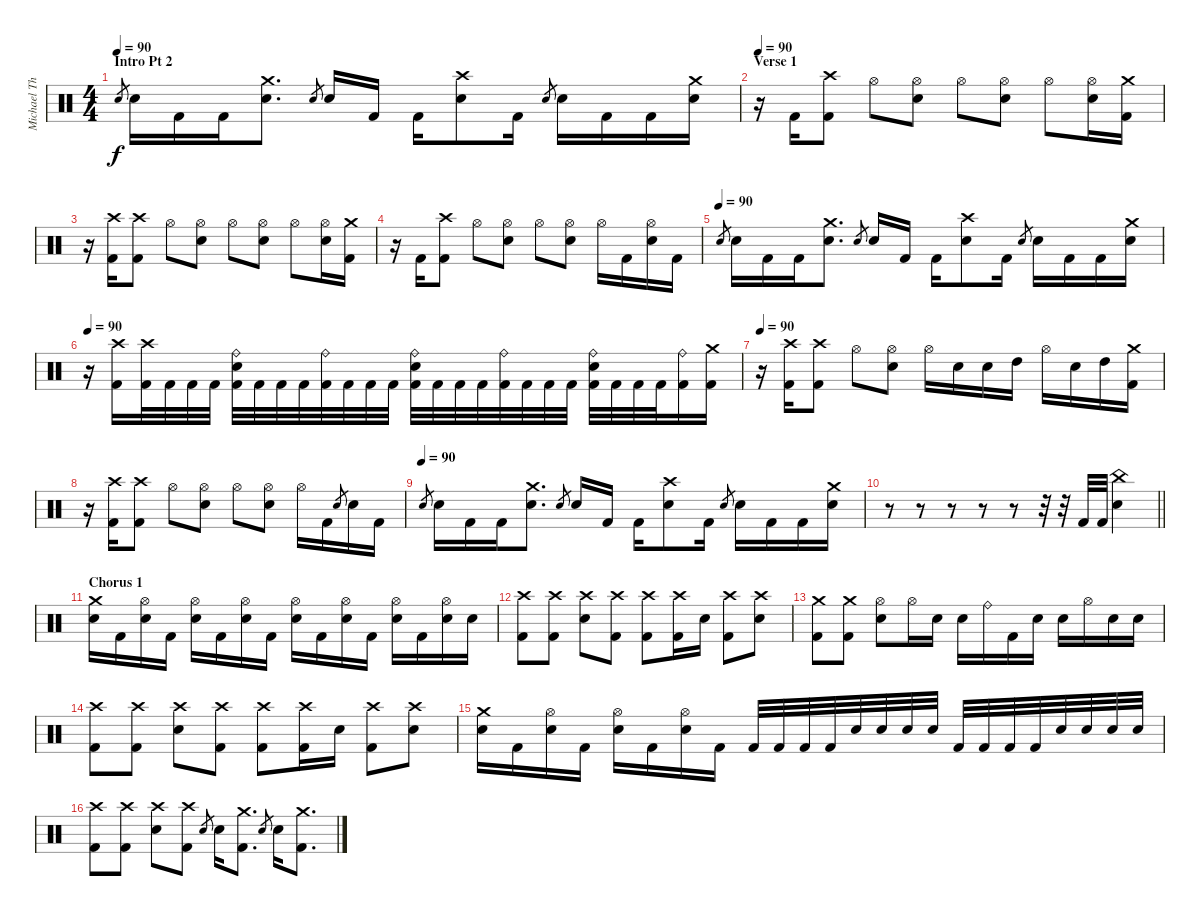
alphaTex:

\track ("Michael Thomas" "Michael Th") {instrument percussion}
\staff {score}
\articulation defaults
\ts (4 4)
\section ("" "Intro Pt 2")
\tempo 90
\clef neutral
\ks c "Electric Snare (hit)".8{gr dy f} "Electric Snare (hit)".16 "Kick (hit) 2".16 "Kick (hit) 2".16
("Crash medium (hit)" "Electric Snare (hit)").8{d} "Electric Snare (hit)".8{gr} "Electric Snare (hit)".16 "Kick (hit) 2".16 "Kick (hit) 2".16 ("Crash high (hit)" "Electric Snare (hit)").8 "Kick (hit) 2".16 "Electric Snare (hit)".8{gr} "Electric Snare (hit)".16 "Kick (hit) 2".16 "Kick (hit) 2".16 ("Crash medium (hit)" "Electric Snare (hit)").16 |
\section ("" "Verse 1")
\tempo 90
r.16 "Kick (hit) 2".16 ("Crash high (hit)" "Kick (hit) 2").8 "Hi-Hat (open)".8 ("Hi-Hat (open)" "Electric Snare (hit)").8 "Hi-Hat (open)".8 ("Hi-Hat (open)" "Electric Snare (hit)").8 "Hi-Hat (open)".8 ("Hi-Hat (open)" "Electric Snare (hit)").16 ("Crash medium (hit)" "Kick (hit) 2").16 |
r.16 ("Crash high (hit)" "Kick (hit) 2").16 ("Crash high (hit)" "Kick (hit) 2").8 "Hi-Hat (open)".8 ("Hi-Hat (open)" "Electric Snare (hit)").8 "Hi-Hat (open)".8 ("Hi-Hat (open)" "Electric Snare (hit)").8 "Hi-Hat (open)".8 ("Hi-Hat (open)" "Electric Snare (hit)").16 ("Crash medium (hit)" "Kick (hit) 2").16 |
r.16 "Kick (hit) 2".16 ("Crash high (hit)" "Kick (hit) 2").8 "Hi-Hat (open)".8 ("Hi-Hat (open)" "Electric Snare (hit)").8 "Hi-Hat (open)".8 ("Hi-Hat (open)" "Electric Snare (hit)").8 "Hi-Hat (open)".16 "Kick (hit) 2".16 ("Hi-Hat (open)" "Electric Snare (hit)").16 "Kick (hit) 2".16 |
\tempo (90)
"Electric Snare (hit)".8{gr} "Electric Snare (hit)".16 "Kick (hit) 2".16 "Kick (hit) 2".16 ("Crash medium (hit)" "Electric Snare (hit)").8{d} "Electric Snare (hit)".8{gr} "Electric Snare (hit)".16 "Kick (hit) 2".16 "Kick (hit) 2".16 ("Crash high (hit)" "Electric Snare (hit)").8 "Kick (hit) 2".16 "Electric Snare (hit)".8{gr} "Electric Snare (hit)".16 "Kick (hit) 2".16 "Kick (hit) 2".16 ("Crash medium (hit)" "Electric Snare (hit)").16 |
\section ("" "")
\tempo 90
r.16 ("Crash high (hit)" "Kick (hit) 2").16 ("Crash high (hit)" "Kick (hit) 2").32 "Kick (hit) 2".32 "Kick (hit) 2".32 "Kick (hit) 2".32 ("Ride (bell)" "Electric Snare (hit)" "Kick (hit) 2").32 "Kick (hit) 2".32 "Kick (hit) 2".32 "Kick (hit) 2".32 ("Ride (bell)" "Kick (hit) 2").32 "Kick (hit) 2".32 "Kick (hit) 2".32 "Kick (hit) 2".32 ("Ride (bell)" "Electric Snare (hit)" "Kick (hit) 2").32 "Kick (hit) 2".32 "Kick (hit) 2".32 "Kick (hit) 2".32 ("Ride (bell)" "Kick (hit) 2").32 "Kick (hit) 2".32 "Kick (hit) 2".32 "Kick (hit) 2".32 ("Ride (bell)" "Electric Snare (hit)" "Kick (hit) 2").32 "Kick (hit) 2".32 "Kick (hit) 2".32 "Kick (hit) 2".32 ("Ride (bell)" "Kick (hit) 2").16 ("Crash medium (hit)" "Kick (hit) 2").16 |
\tempo 90
r.16 ("Crash high (hit)" "Kick (hit) 2").16 ("Crash high (hit)" "Kick (hit) 2").8 "Hi-Hat (open)".8 ("Hi-Hat (open)" "Electric Snare (hit)").8 "Hi-Hat (open)".16 "Electric Snare (hit)".16 "Electric Snare (hit)".16 "High Tom (hit)".16 "Hi-Hat (open)".16 "Electric Snare (hit)".16 "High Tom (hit)".16 ("Crash medium (hit)" "Kick (hit) 2").16 |
r.16 ("Crash high (hit)" "Kick (hit) 2").16 ("Crash high (hit)" "Kick (hit) 2").8 "Hi-Hat (open)".8 ("Hi-Hat (open)" "Electric Snare (hit)").8 "Hi-Hat (open)".8 ("Hi-Hat (open)" "Electric Snare (hit)").8 "Hi-Hat (open)".16 "Kick (hit) 2".16 "Electric Snare (hit)".8{gr} "Electric Snare (hit)".16 "Kick (hit) 2".16 |
\tempo (90)
"Electric Snare (hit)".8{gr} "Electric Snare (hit)".16 "Kick (hit) 2".16 "Kick (hit) 2".16 ("Crash medium (hit)" "Electric Snare (hit)").8{d} "Electric Snare (hit)".8{gr} "Electric Snare (hit)".16 "Kick (hit) 2".16 "Kick (hit) 2".16 ("Crash high (hit)" "Electric Snare (hit)").8 "Kick (hit) 2".16 "Electric Snare (hit)".8{gr} "Electric Snare (hit)".16 "Kick (hit) 2".16 "Kick (hit) 2".16 ("Crash medium (hit)" "Electric Snare (hit)").16 |
\barLineRight lightlight
r.8 r.8 r.8 r.8 r.8 r.32 r.32 "Kick (hit) 2".32 "Kick (hit) 2".32 ("China (hit)" "Electric Snare (hit)").4 |
\section ("" "Chorus 1")
("Crash medium (hit)" "Electric Snare (hit)").16 "Kick (hit) 2".16 ("Hi-Hat (open)" "Electric Snare (hit)").16 "Kick (hit) 2".16 ("Hi-Hat (open)" "Electric Snare (hit)").16 "Kick (hit) 2".16 ("Hi-Hat (open)" "Electric Snare (hit)").16 "Kick (hit) 2".16 ("Hi-Hat (open)" "Electric Snare (hit)").16 "Kick (hit) 2".16 ("Hi-Hat (open)" "Electric Snare (hit)").16 "Kick (hit) 2".16 ("Hi-Hat (open)" "Electric Snare (hit)").16 "Kick (hit) 2".16 ("Hi-Hat (open)" "Electric Snare (hit)").16 "Electric Snare (hit)".16 |
("Crash high (hit)" "Kick (hit) 2").8 ("Crash high (hit)" "Kick (hit) 2").8 ("Crash high (hit)" "Electric Snare (hit)").8 ("Crash high (hit)" "Kick (hit) 2").8 ("Crash high (hit)" "Kick (hit) 2").8 ("Crash high (hit)" "Kick (hit) 2").16 "Electric Snare (hit)".16 ("Crash high (hit)" "Kick (hit) 2").8 ("Crash high (hit)" "Electric Snare (hit)").8 |
("Crash medium (hit)" "Kick (hit) 2").8 ("Crash medium (hit)" "Kick (hit) 2").8 ("Hi-Hat (open)" "Electric Snare (hit)").8 "Hi-Hat (open)".16 "Electric Snare (hit)".16 "Electric Snare (hit)".16 "Ride (bell)".16 "Kick (hit) 2".16 "Electric Snare (hit)".16 "Electric Snare (hit)".16 "Hi-Hat (open)".16 "Electric Snare (hit)".16 "Electric Snare (hit)".16 |
("Crash high (hit)" "Kick (hit) 2").8 ("Crash high (hit)" "Kick (hit) 2").8 ("Crash high (hit)" "Electric Snare (hit)").8 ("Crash high (hit)" "Kick (hit) 2").8 ("Crash high (hit)" "Kick (hit) 2").8 ("Crash high (hit)" "Kick (hit) 2").16 "Electric Snare (hit)".16 ("Crash high (hit)" "Kick (hit) 2").8 ("Crash high (hit)" "Electric Snare (hit)").8 |
("Crash medium (hit)" "Electric Snare (hit)").16 "Kick (hit) 2".16 ("Hi-Hat (open)" "Electric Snare (hit)").16 "Kick (hit) 2".16 ("Hi-Hat (open)" "Electric Snare (hit)").16 "Kick (hit) 2".16 ("Hi-Hat (open)" "Electric Snare (hit)").16 "Kick (hit) 2".16 "Kick (hit) 2".32 "Kick (hit) 2".32 "Kick (hit) 2".32 "Kick (hit) 2".32 "Electric Snare (hit)".32 "Electric Snare (hit)".32 "Electric Snare (hit)".32 "Electric Snare (hit)".32 "Kick (hit) 2".32 "Kick (hit) 2".32 "Kick (hit) 2".32 "Kick (hit) 2".32 "Electric Snare (hit)".32 "Electric Snare (hit)".32 "Electric Snare (hit)".32 "Electric Snare (hit)".32 |
("Crash high (hit)" "Kick (hit) 2").8 ("Crash high (hit)" "Kick (hit) 2").8 ("Crash high (hit)" "Electric Snare (hit)").8 ("Crash high (hit)" "Kick (hit) 2").8 "Electric Snare (hit)".8{gr} "Electric Snare (hit)".16 ("Crash medium (hit)" "Kick (hit) 2").8{d} "Electric Snare (hit)".8{gr} "Electric Snare (hit)".16 ("Crash medium (hit)" "Kick (hit) 2").8{d}
